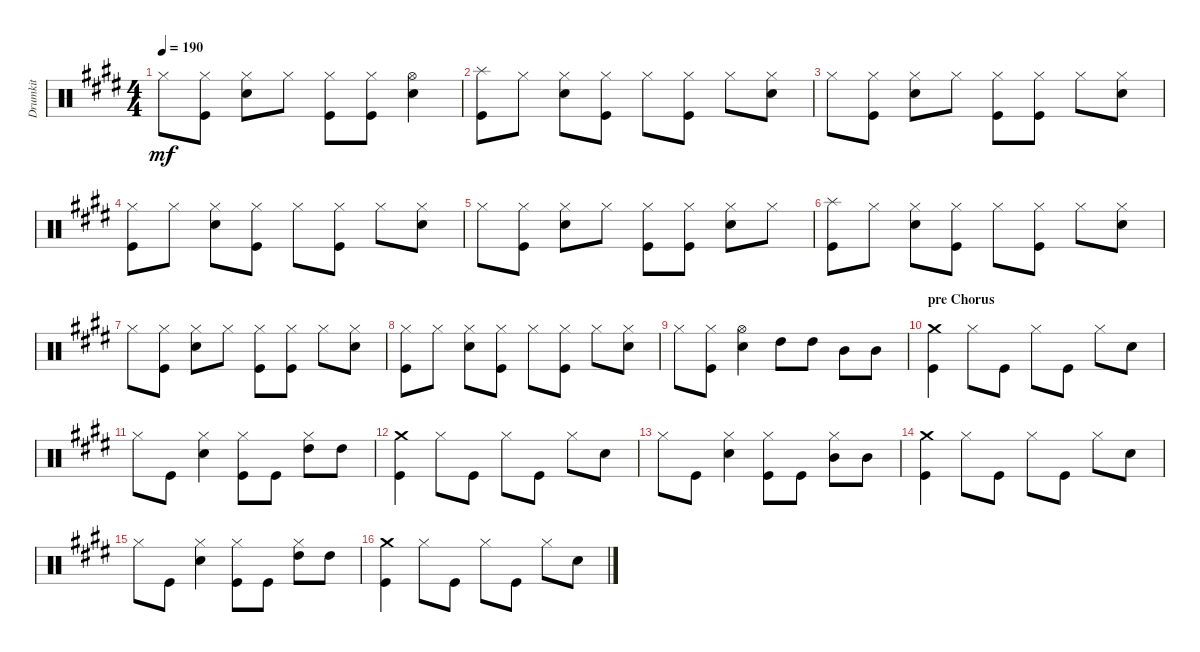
\track ("Drumkit" "Drumkit") {instrument percussion}
\staff {score}
\articulation defaults
\ts (4 4)
\tempo 190
\clef neutral
\ks e "Hi-Hat (closed)".8{dy mf}
("Hi-Hat (closed)" "Kick (hit)").8 ("Hi-Hat (closed)" "Snare (hit) 2").8 "Hi-Hat (closed)".8 ("Hi-Hat (closed)" "Kick (hit)").8 ("Hi-Hat (closed)" "Kick (hit)").8 ("Hi-Hat (open)" "Snare (hit) 2").4 |
("Splash (hit)" "Kick (hit)").8 "Hi-Hat (closed)".8 ("Hi-Hat (closed)" "Snare (hit) 2").8 ("Hi-Hat (closed)" "Kick (hit)").8 "Hi-Hat (closed)".8 ("Hi-Hat (closed)" "Kick (hit)").8 "Hi-Hat (closed)".8 ("Hi-Hat (closed)" "Snare (hit) 2").8 |
"Hi-Hat (closed)".8 ("Hi-Hat (closed)" "Kick (hit)").8 ("Hi-Hat (closed)" "Snare (hit) 2").8 "Hi-Hat (closed)".8 ("Hi-Hat (closed)" "Kick (hit)").8 ("Hi-Hat (closed)" "Kick (hit)").8 "Hi-Hat (closed)".8 ("Hi-Hat (closed)" "Snare (hit) 2").8 |
("Hi-Hat (closed)" "Kick (hit)").8 "Hi-Hat (closed)".8 ("Hi-Hat (closed)" "Snare (hit) 2").8 ("Hi-Hat (closed)" "Kick (hit)").8 "Hi-Hat (closed)".8 ("Hi-Hat (closed)" "Kick (hit)").8 "Hi-Hat (closed)".8 ("Hi-Hat (closed)" "Snare (hit) 2").8 |
"Hi-Hat (closed)".8 ("Kick (hit)" "Hi-Hat (closed)").8 ("Hi-Hat (closed)" "Snare (hit) 2").8 "Hi-Hat (closed)".8 ("Hi-Hat (closed)" "Kick (hit)").8 ("Hi-Hat (closed)" "Kick (hit)").8 ("Hi-Hat (closed)" "Snare (hit) 2").8 "Hi-Hat (closed)".8 |
("Splash (hit)" "Kick (hit)").8 "Hi-Hat (closed)".8 ("Hi-Hat (closed)" "Snare (hit) 2").8 ("Hi-Hat (closed)" "Kick (hit)").8 "Hi-Hat (closed)".8 ("Hi-Hat (closed)" "Kick (hit)").8 "Hi-Hat (closed)".8 ("Hi-Hat (closed)" "Snare (hit) 2").8 |
"Hi-Hat (closed)".8 ("Hi-Hat (closed)" "Kick (hit)").8 ("Hi-Hat (closed)" "Snare (hit) 2").8 "Hi-Hat (closed)".8 ("Hi-Hat (closed)" "Kick (hit)").8 ("Hi-Hat (closed)" "Kick (hit)").8 "Hi-Hat (closed)".8 ("Hi-Hat (closed)" "Snare (hit) 2").8 |
("Hi-Hat (closed)" "Kick (hit)").8 "Hi-Hat (closed)".8 ("Hi-Hat (closed)" "Snare (hit) 2").8 ("Hi-Hat (closed)" "Kick (hit)").8 "Hi-Hat (closed)".8 ("Hi-Hat (closed)" "Kick (hit)").8 "Hi-Hat (closed)".8 ("Hi-Hat (closed)" "Snare (hit) 2").8 |
"Hi-Hat (closed)".8 ("Hi-Hat (closed)" "Kick (hit)").8 ("Hi-Hat (open)" "Snare (hit) 2").4 "High Tom (hit)".8 "High Tom (hit)".8 "Mid Tom (hit)".8 "Mid Tom (hit)".8 |
\section ("" "pre Chorus")
("Crash medium (hit)" "Kick (hit)").4 "Hi-Hat (closed)".8 "Kick (hit)".8 "Hi-Hat (closed)".8 "Kick (hit)".8 "Hi-Hat (closed)".8 "Snare (hit) 2".8 |
"Hi-Hat (closed)".8 "Kick (hit)".8 ("Hi-Hat (closed)" "Snare (hit) 2").4 ("Kick (hit)" "Hi-Hat (closed)").8 "Kick (hit)".8 ("Hi-Hat (closed)" "High Tom (hit)").8 "High Tom (hit)".8 |
("Crash medium (hit)" "Kick (hit)").4 "Hi-Hat (closed)".8 "Kick (hit)".8 "Hi-Hat (closed)".8 "Kick (hit)".8 "Hi-Hat (closed)".8 "Snare (hit) 2".8 |
"Hi-Hat (closed)".8 "Kick (hit)".8 ("Hi-Hat (closed)" "Snare (hit) 2").4 ("Kick (hit)" "Hi-Hat (closed)").8 "Kick (hit)".8 ("Hi-Hat (closed)" "Mid Tom (hit)").8 "Mid Tom (hit)".8 |
("Crash medium (hit)" "Kick (hit)").4 "Hi-Hat (closed)".8 "Kick (hit)".8 "Hi-Hat (closed)".8 "Kick (hit)".8 "Hi-Hat (closed)".8 "Snare (hit) 2".8 |
"Hi-Hat (closed)".8 "Kick (hit)".8 ("Hi-Hat (closed)" "Snare (hit) 2").4 ("Kick (hit)" "Hi-Hat (closed)").8 "Kick (hit)".8 ("Hi-Hat (closed)" "High Tom (hit)").8 "High Tom (hit)".8 |
("Crash medium (hit)" "Kick (hit)").4 "Hi-Hat (closed)".8 "Kick (hit)".8 "Hi-Hat (closed)".8 "Kick (hit)".8 "Hi-Hat (closed)".8 "Snare (hit) 2".8
